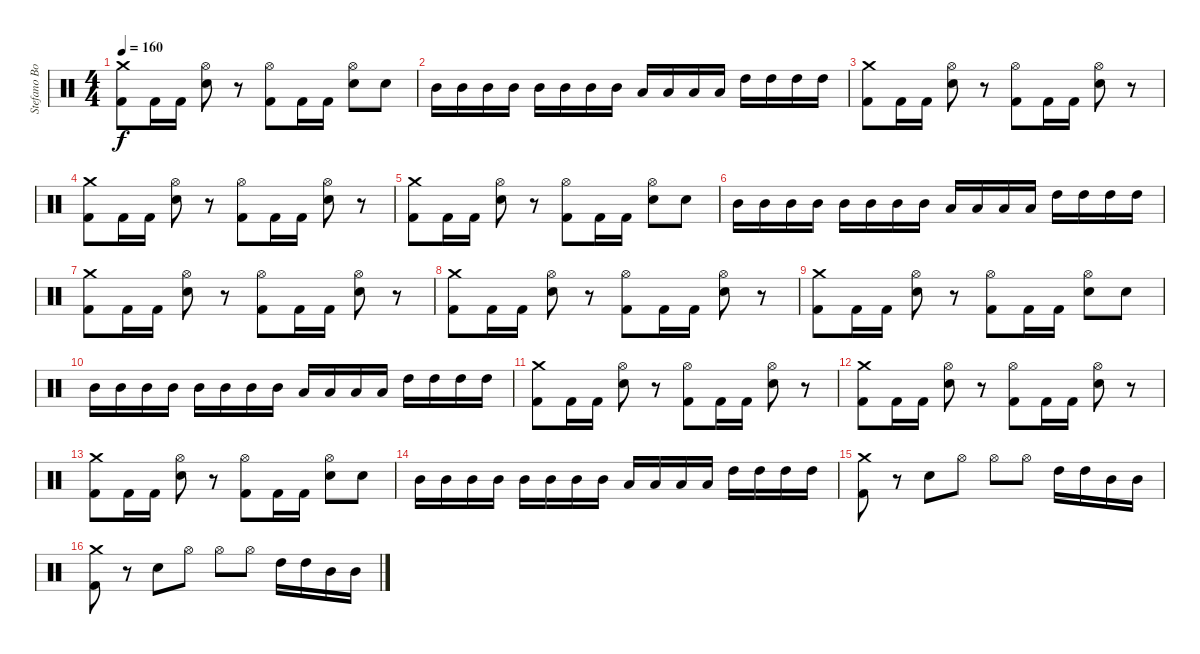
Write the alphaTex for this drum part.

\track ("Stefano Bonini" "Stefano Bo") {instrument percussion}
\staff {score}
\articulation defaults
\ts (4 4)
\tempo 160
\clef neutral
\ks c
("Crash medium (hit)" "Kick (hit) 2").8{dy f} "Kick (hit) 2".16 "Kick (hit) 2".16 ("Hi-Hat (open)" "Snare (hit) 2").8 r.8 ("Hi-Hat (open)" "Kick (hit) 2").8 "Kick (hit) 2".16 "Kick (hit) 2".16 ("Hi-Hat (open)" "Snare (hit) 2").8 "Snare (hit) 2".8 |
"Mid Tom (hit)".16 "Mid Tom (hit)".16 "Mid Tom (hit)".16 "Mid Tom (hit)".16 "Mid Tom (hit)".16 "Mid Tom (hit)".16 "Mid Tom (hit)".16 "Mid Tom (hit)".16 "Low Tom (hit)".16 "Low Tom (hit)".16 "Low Tom (hit)".16 "Low Tom (hit)".16 "High Tom (hit)".16 "High Tom (hit)".16 "High Tom (hit)".16 "High Tom (hit)".16 |
("Crash medium (hit)" "Kick (hit) 2").8 "Kick (hit) 2".16 "Kick (hit) 2".16 ("Hi-Hat (open)" "Snare (hit) 2").8 r.8 ("Hi-Hat (open)" "Kick (hit) 2").8 "Kick (hit) 2".16 "Kick (hit) 2".16 ("Hi-Hat (open)" "Snare (hit) 2").8 r.8 |
("Crash medium (hit)" "Kick (hit) 2").8 "Kick (hit) 2".16 "Kick (hit) 2".16 ("Hi-Hat (open)" "Snare (hit) 2").8 r.8 ("Hi-Hat (open)" "Kick (hit) 2").8 "Kick (hit) 2".16 "Kick (hit) 2".16 ("Hi-Hat (open)" "Snare (hit) 2").8 r.8 |
("Crash medium (hit)" "Kick (hit) 2").8 "Kick (hit) 2".16 "Kick (hit) 2".16 ("Hi-Hat (open)" "Snare (hit) 2").8 r.8 ("Hi-Hat (open)" "Kick (hit) 2").8 "Kick (hit) 2".16 "Kick (hit) 2".16 ("Hi-Hat (open)" "Snare (hit) 2").8 "Snare (hit) 2".8 |
"Mid Tom (hit)".16 "Mid Tom (hit)".16 "Mid Tom (hit)".16 "Mid Tom (hit)".16 "Mid Tom (hit)".16 "Mid Tom (hit)".16 "Mid Tom (hit)".16 "Mid Tom (hit)".16 "Low Tom (hit)".16 "Low Tom (hit)".16 "Low Tom (hit)".16 "Low Tom (hit)".16 "High Tom (hit)".16 "High Tom (hit)".16 "High Tom (hit)".16 "High Tom (hit)".16 |
("Crash medium (hit)" "Kick (hit) 2").8 "Kick (hit) 2".16 "Kick (hit) 2".16 ("Hi-Hat (open)" "Snare (hit) 2").8 r.8 ("Hi-Hat (open)" "Kick (hit) 2").8 "Kick (hit) 2".16 "Kick (hit) 2".16 ("Hi-Hat (open)" "Snare (hit) 2").8 r.8 |
("Crash medium (hit)" "Kick (hit) 2").8 "Kick (hit) 2".16 "Kick (hit) 2".16 ("Hi-Hat (open)" "Snare (hit) 2").8 r.8 ("Hi-Hat (open)" "Kick (hit) 2").8 "Kick (hit) 2".16 "Kick (hit) 2".16 ("Hi-Hat (open)" "Snare (hit) 2").8 r.8 |
("Crash medium (hit)" "Kick (hit) 2").8 "Kick (hit) 2".16 "Kick (hit) 2".16 ("Hi-Hat (open)" "Snare (hit) 2").8 r.8 ("Hi-Hat (open)" "Kick (hit) 2").8 "Kick (hit) 2".16 "Kick (hit) 2".16 ("Hi-Hat (open)" "Snare (hit) 2").8 "Snare (hit) 2".8 |
"Mid Tom (hit)".16 "Mid Tom (hit)".16 "Mid Tom (hit)".16 "Mid Tom (hit)".16 "Mid Tom (hit)".16 "Mid Tom (hit)".16 "Mid Tom (hit)".16 "Mid Tom (hit)".16 "Low Tom (hit)".16 "Low Tom (hit)".16 "Low Tom (hit)".16 "Low Tom (hit)".16 "High Tom (hit)".16 "High Tom (hit)".16 "High Tom (hit)".16 "High Tom (hit)".16 |
("Crash medium (hit)" "Kick (hit) 2").8 "Kick (hit) 2".16 "Kick (hit) 2".16 ("Hi-Hat (open)" "Snare (hit) 2").8 r.8 ("Hi-Hat (open)" "Kick (hit) 2").8 "Kick (hit) 2".16 "Kick (hit) 2".16 ("Hi-Hat (open)" "Snare (hit) 2").8 r.8 |
("Crash medium (hit)" "Kick (hit) 2").8 "Kick (hit) 2".16 "Kick (hit) 2".16 ("Hi-Hat (open)" "Snare (hit) 2").8 r.8 ("Hi-Hat (open)" "Kick (hit) 2").8 "Kick (hit) 2".16 "Kick (hit) 2".16 ("Hi-Hat (open)" "Snare (hit) 2").8 r.8 |
("Crash medium (hit)" "Kick (hit) 2").8 "Kick (hit) 2".16 "Kick (hit) 2".16 ("Hi-Hat (open)" "Snare (hit) 2").8 r.8 ("Hi-Hat (open)" "Kick (hit) 2").8 "Kick (hit) 2".16 "Kick (hit) 2".16 ("Hi-Hat (open)" "Snare (hit) 2").8 "Snare (hit) 2".8 |
"Mid Tom (hit)".16 "Mid Tom (hit)".16 "Mid Tom (hit)".16 "Mid Tom (hit)".16 "Mid Tom (hit)".16 "Mid Tom (hit)".16 "Mid Tom (hit)".16 "Mid Tom (hit)".16 "Low Tom (hit)".16 "Low Tom (hit)".16 "Low Tom (hit)".16 "Low Tom (hit)".16 "High Tom (hit)".16 "High Tom (hit)".16 "High Tom (hit)".16 "High Tom (hit)".16 |
("Crash medium (hit)" "Kick (hit) 2").8 r.8 "Snare (hit) 2".8 "Hi-Hat (open)".8 "Hi-Hat (open)".8 "Hi-Hat (open)".8 "High Tom (hit)".16 "High Tom (hit)".16 "Mid Tom (hit)".16 "Mid Tom (hit)".16 |
("Crash medium (hit)" "Kick (hit) 2").8 r.8 "Snare (hit) 2".8 "Hi-Hat (open)".8 "Hi-Hat (open)".8 "Hi-Hat (open)".8 "High Tom (hit)".16 "High Tom (hit)".16 "Mid Tom (hit)".16 "Mid Tom (hit)".16
